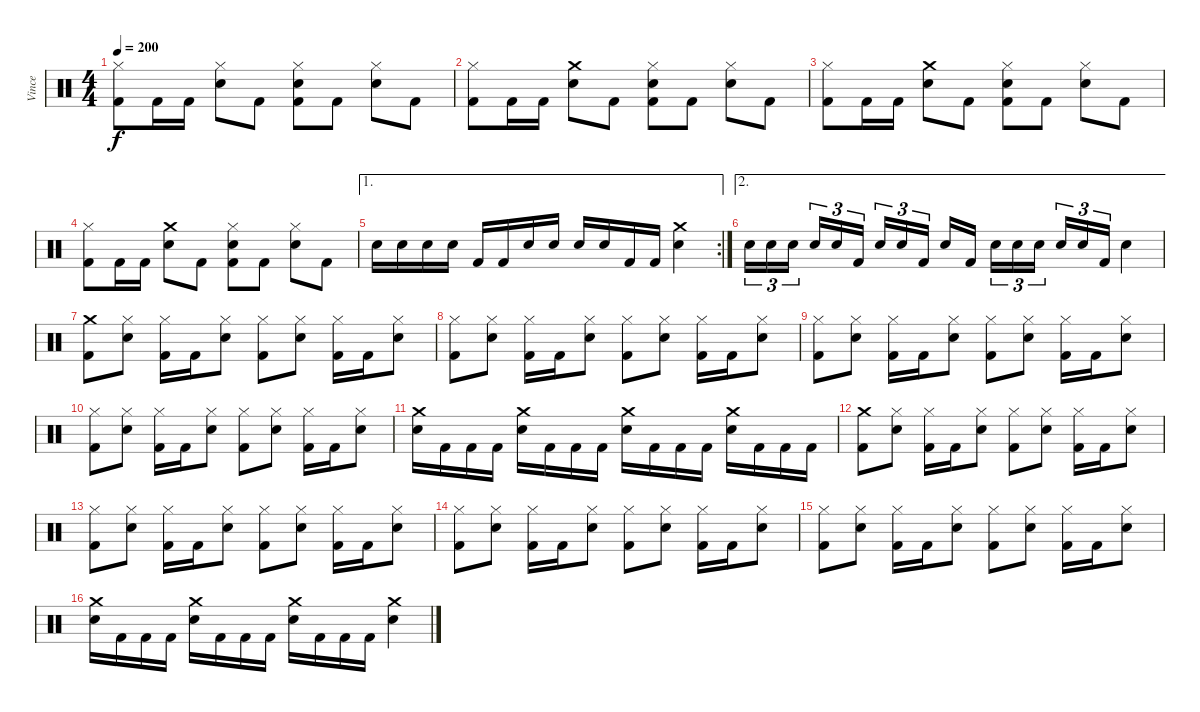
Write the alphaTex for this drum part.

\track ("Vince" "Vince") {instrument percussion}
\staff {score}
\articulation defaults
\ts (4 4)
\tempo 200
\clef neutral
\ks c
("Hi-Hat (closed)" "Kick (hit) 2").8{dy f} "Kick (hit) 2".16 "Kick (hit) 2".16 ("Hi-Hat (closed)" "Snare (hit) 2").8 "Kick (hit) 2".8 ("Hi-Hat (closed)" "Snare (hit) 2" "Kick (hit) 2").8 "Kick (hit) 2".8 ("Hi-Hat (closed)" "Snare (hit) 2").8 "Kick (hit) 2".8 |
("Hi-Hat (closed)" "Kick (hit) 2").8 "Kick (hit) 2".16 "Kick (hit) 2".16 ("Crash medium (hit)" "Snare (hit) 2").8 "Kick (hit) 2".8 ("Hi-Hat (closed)" "Snare (hit) 2" "Kick (hit) 2").8 "Kick (hit) 2".8 ("Hi-Hat (closed)" "Snare (hit) 2").8 "Kick (hit) 2".8 |
("Hi-Hat (closed)" "Kick (hit) 2").8 "Kick (hit) 2".16 "Kick (hit) 2".16 ("Crash medium (hit)" "Snare (hit) 2").8 "Kick (hit) 2".8 ("Hi-Hat (closed)" "Snare (hit) 2" "Kick (hit) 2").8 "Kick (hit) 2".8 ("Hi-Hat (closed)" "Snare (hit) 2").8 "Kick (hit) 2".8 |
("Hi-Hat (closed)" "Kick (hit) 2").8 "Kick (hit) 2".16 "Kick (hit) 2".16 ("Crash medium (hit)" "Snare (hit) 2").8 "Kick (hit) 2".8 ("Hi-Hat (closed)" "Snare (hit) 2" "Kick (hit) 2").8 "Kick (hit) 2".8 ("Hi-Hat (closed)" "Snare (hit) 2").8 "Kick (hit) 2".8 |
\ae 1
\rc 2 "Snare (hit) 2".16 "Snare (hit) 2".16 "Snare (hit) 2".16 "Snare (hit) 2".16 "Kick (hit) 2".16 "Kick (hit) 2".16 "Snare (hit) 2".16 "Snare (hit) 2".16 "Snare (hit) 2".16 "Snare (hit) 2".16 "Kick (hit) 2".16 "Kick (hit) 2".16
("Crash medium (hit)" "Snare (hit) 2").4 |
\ae 2 "Snare (hit) 2".16{tu (3 2)} "Snare (hit) 2".16{tu (3 2)} "Snare (hit) 2".16{tu (3 2)} "Snare (hit) 2".16{tu (3 2)} "Snare (hit) 2".16{tu (3 2)} "Kick (hit) 2".16{tu (3 2)} "Snare (hit) 2".16{tu (3 2)} "Snare (hit) 2".16{tu (3 2)} "Kick (hit) 2".16{tu (3 2)} "Snare (hit) 2".16 "Kick (hit) 2".16 "Snare (hit) 2".16{tu (3 2)} "Snare (hit) 2".16{tu (3 2)} "Snare (hit) 2".16{tu (3 2)} "Snare (hit) 2".16{tu (3 2)} "Snare (hit) 2".16{tu (3 2)} "Kick (hit) 2".16{tu (3 2)} "Snare (hit) 2".4
|
("Crash medium (hit)" "Kick (hit) 2").8 ("Hi-Hat (closed)" "Snare (hit) 2").8 ("Hi-Hat (closed)" "Kick (hit) 2").16 "Kick (hit) 2".16 ("Hi-Hat (closed)" "Snare (hit) 2").8 ("Hi-Hat (closed)" "Kick (hit) 2").8 ("Hi-Hat (closed)" "Snare (hit) 2").8 ("Hi-Hat (closed)" "Kick (hit) 2").16 "Kick (hit) 2".16 ("Hi-Hat (closed)" "Snare (hit) 2").8 |
("Hi-Hat (closed)" "Kick (hit) 2").8 ("Hi-Hat (closed)" "Snare (hit) 2").8 ("Hi-Hat (closed)" "Kick (hit) 2").16 "Kick (hit) 2".16 ("Hi-Hat (closed)" "Snare (hit) 2").8 ("Hi-Hat (closed)" "Kick (hit) 2").8 ("Hi-Hat (closed)" "Snare (hit) 2").8 ("Hi-Hat (closed)" "Kick (hit) 2").16 "Kick (hit) 2".16 ("Hi-Hat (closed)" "Snare (hit) 2").8 |
("Hi-Hat (closed)" "Kick (hit) 2").8 ("Hi-Hat (closed)" "Snare (hit) 2").8 ("Hi-Hat (closed)" "Kick (hit) 2").16 "Kick (hit) 2".16 ("Hi-Hat (closed)" "Snare (hit) 2").8 ("Hi-Hat (closed)" "Kick (hit) 2").8 ("Hi-Hat (closed)" "Snare (hit) 2").8 ("Hi-Hat (closed)" "Kick (hit) 2").16 "Kick (hit) 2".16 ("Hi-Hat (closed)" "Snare (hit) 2").8 |
("Hi-Hat (closed)" "Kick (hit) 2").8 ("Hi-Hat (closed)" "Snare (hit) 2").8 ("Hi-Hat (closed)" "Kick (hit) 2").16 "Kick (hit) 2".16 ("Hi-Hat (closed)" "Snare (hit) 2").8 ("Hi-Hat (closed)" "Kick (hit) 2").8 ("Hi-Hat (closed)" "Snare (hit) 2").8 ("Hi-Hat (closed)" "Kick (hit) 2").16 "Kick (hit) 2".16 ("Hi-Hat (closed)" "Snare (hit) 2").8 |
("Crash medium (hit)" "Snare (hit) 2").16 "Kick (hit) 2".16 "Kick (hit) 2".16 "Kick (hit) 2".16 ("Crash medium (hit)" "Snare (hit) 2").16 "Kick (hit) 2".16 "Kick (hit) 2".16 "Kick (hit) 2".16 ("Crash medium (hit)" "Snare (hit) 2").16 "Kick (hit) 2".16 "Kick (hit) 2".16 "Kick (hit) 2".16 ("Crash medium (hit)" "Snare (hit) 2").16 "Kick (hit) 2".16 "Kick (hit) 2".16 "Kick (hit) 2".16 |
("Crash medium (hit)" "Kick (hit) 2").8 ("Hi-Hat (closed)" "Snare (hit) 2").8 ("Hi-Hat (closed)" "Kick (hit) 2").16 "Kick (hit) 2".16 ("Hi-Hat (closed)" "Snare (hit) 2").8 ("Hi-Hat (closed)" "Kick (hit) 2").8 ("Hi-Hat (closed)" "Snare (hit) 2").8 ("Hi-Hat (closed)" "Kick (hit) 2").16 "Kick (hit) 2".16 ("Hi-Hat (closed)" "Snare (hit) 2").8 |
("Hi-Hat (closed)" "Kick (hit) 2").8 ("Hi-Hat (closed)" "Snare (hit) 2").8 ("Hi-Hat (closed)" "Kick (hit) 2").16 "Kick (hit) 2".16 ("Hi-Hat (closed)" "Snare (hit) 2").8 ("Hi-Hat (closed)" "Kick (hit) 2").8 ("Hi-Hat (closed)" "Snare (hit) 2").8 ("Hi-Hat (closed)" "Kick (hit) 2").16 "Kick (hit) 2".16 ("Hi-Hat (closed)" "Snare (hit) 2").8 |
("Hi-Hat (closed)" "Kick (hit) 2").8 ("Hi-Hat (closed)" "Snare (hit) 2").8 ("Hi-Hat (closed)" "Kick (hit) 2").16 "Kick (hit) 2".16 ("Hi-Hat (closed)" "Snare (hit) 2").8 ("Hi-Hat (closed)" "Kick (hit) 2").8 ("Hi-Hat (closed)" "Snare (hit) 2").8 ("Hi-Hat (closed)" "Kick (hit) 2").16 "Kick (hit) 2".16 ("Hi-Hat (closed)" "Snare (hit) 2").8 |
("Hi-Hat (closed)" "Kick (hit) 2").8 ("Hi-Hat (closed)" "Snare (hit) 2").8 ("Hi-Hat (closed)" "Kick (hit) 2").16 "Kick (hit) 2".16 ("Hi-Hat (closed)" "Snare (hit) 2").8 ("Hi-Hat (closed)" "Kick (hit) 2").8 ("Hi-Hat (closed)" "Snare (hit) 2").8 ("Hi-Hat (closed)" "Kick (hit) 2").16 "Kick (hit) 2".16 ("Hi-Hat (closed)" "Snare (hit) 2").8 |
("Crash medium (hit)" "Snare (hit) 2").16 "Kick (hit) 2".16 "Kick (hit) 2".16 "Kick (hit) 2".16 ("Crash medium (hit)" "Snare (hit) 2").16 "Kick (hit) 2".16 "Kick (hit) 2".16 "Kick (hit) 2".16 ("Crash medium (hit)" "Snare (hit) 2").16 "Kick (hit) 2".16 "Kick (hit) 2".16 "Kick (hit) 2".16 ("Crash medium (hit)" "Snare (hit) 2").4
